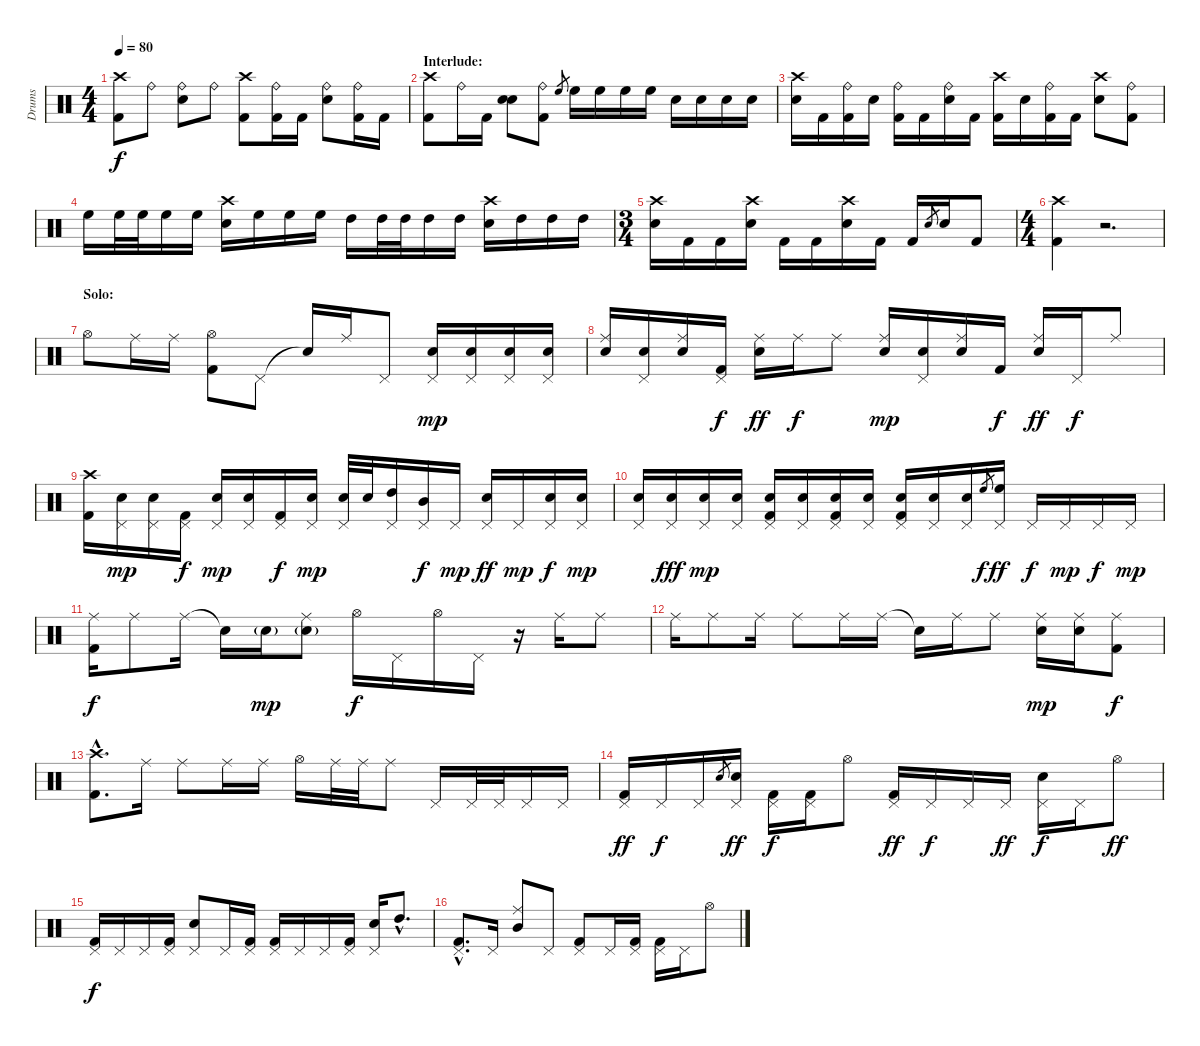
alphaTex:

\track ("Drums" "Drums") {instrument percussion}
\staff {score}
\articulation defaults
\ts (4 4)
\tempo 80
\clef neutral
\ks c
("Crash high (hit)" "Kick (hit) 2").8{dy f} "Ride (bell)".8 ("Ride (bell)" "Electric Snare (hit)").8 "Ride (bell)".8 ("Crash high (hit)" "Kick (hit) 2").8 ("Ride (bell)" "Kick (hit) 2").16 "Kick (hit) 2".16 ("Ride (bell)" "Electric Snare (hit)").8 ("Ride (bell)" "Kick (hit) 2").16 "Kick (hit) 2".16 |
\section ("" "Interlude:")
("Crash high (hit)" "Kick (hit) 2").8 "Ride (bell)".16 "Kick (hit) 2".16 ("Electric Snare (hit)" "Electric Snare (hit)").8 ("Ride (bell)" "Kick (hit) 2").8 "High Floor Tom (hit)".8{gr} "High Floor Tom (hit)".16 "High Floor Tom (hit)".16 "High Floor Tom (hit)".16 "High Floor Tom (hit)".16 "Electric Snare (hit)".16 "Electric Snare (hit)".16 "Electric Snare (hit)".16 "Electric Snare (hit)".16 |
("Crash high (hit)" "Electric Snare (hit)").16 "Kick (hit) 2".16 ("Ride (bell)" "Kick (hit) 2").16 "Electric Snare (hit)".16 ("Ride (bell)" "Kick (hit) 2").16 "Kick (hit) 2".16 ("Ride (bell)" "Electric Snare (hit)").16 "Kick (hit) 2".16 ("Crash high (hit)" "Kick (hit) 2").16 "Electric Snare (hit)".16 ("Ride (bell)" "Kick (hit) 2").16 "Kick (hit) 2".16 ("Crash high (hit)" "Electric Snare (hit)").8 ("Ride (bell)" "Kick (hit) 2").8 |
"High Floor Tom (hit)".16 "High Floor Tom (hit)".32 "High Floor Tom (hit)".32 "High Floor Tom (hit)".16 "High Floor Tom (hit)".16 ("Crash high (hit)" "Electric Snare (hit)").16 "High Floor Tom (hit)".16 "High Floor Tom (hit)".16 "High Floor Tom (hit)".16 "High Tom (hit)".16 "High Tom (hit)".32 "High Tom (hit)".32 "High Tom (hit)".16 "High Tom (hit)".16 ("Crash high (hit)" "Electric Snare (hit)").16 "High Tom (hit)".16 "High Tom (hit)".16 "High Tom (hit)".16 |
\ts (3 4)
("Crash high (hit)" "Electric Snare (hit)").16 "Kick (hit) 2".16 "Kick (hit) 2".16 ("Crash high (hit)" "Electric Snare (hit)").16 "Kick (hit) 2".16 "Kick (hit) 2".16 ("Crash high (hit)" "Electric Snare (hit)").16 "Kick (hit) 2".16 "Kick (hit) 2".16 "Electric Snare (hit)".8{gr} "Electric Snare (hit)".16 "Kick (hit) 2".8 |
\ts (4 4)
("Crash high (hit)" "Kick (hit) 2").4 r.2{d} |
\section ("" "Solo:")
"Hi-Hat (open)".8{volume 6} "Ride (middle)".16 "Ride (middle)".16 ("Hi-Hat (open)" "Kick (hit) 2").8 "Pedal Hi-Hat (hit)".8 "Snare (hit)"{t}.16 "Ride (middle)".16 "Pedal Hi-Hat (hit)".8 ("Pedal Hi-Hat (hit)" "Electric Snare (hit)").16{dy mp} ("Pedal Hi-Hat (hit)" "Electric Snare (hit)").16 ("Pedal Hi-Hat (hit)" "Electric Snare (hit)").16 ("Pedal Hi-Hat (hit)" "Electric Snare (hit)").16 |
("Ride (middle)" "Electric Snare (hit)").16 ("Pedal Hi-Hat (hit)" "Electric Snare (hit)").16 ("Ride (middle)" "Electric Snare (hit)").16 ("Pedal Hi-Hat (hit)" "Kick (hit) 2").16{dy f} ("Ride (middle)" "Electric Snare (hit)").16{dy ff} "Ride (middle)".16{dy f} "Ride (middle)".8 ("Ride (middle)" "Electric Snare (hit)").16{dy mp} ("Pedal Hi-Hat (hit)" "Electric Snare (hit)").16 ("Ride (middle)" "Electric Snare (hit)").16 "Kick (hit) 2".16{dy f} ("Ride (middle)" "Electric Snare (hit)").16{dy ff} "Pedal Hi-Hat (hit)".16{dy f} "Ride (middle)".8 |
("Crash high (hit)" "Kick (hit) 2").16 ("Pedal Hi-Hat (hit)" "Electric Snare (hit)").16{dy mp} ("Pedal Hi-Hat (hit)" "Electric Snare (hit)").16 ("Pedal Hi-Hat (hit)" "Kick (hit) 2").16{dy f} ("Pedal Hi-Hat (hit)" "Electric Snare (hit)").16{dy mp} ("Pedal Hi-Hat (hit)" "Electric Snare (hit)").16 ("Pedal Hi-Hat (hit)" "Kick (hit) 2").16{dy f} ("Pedal Hi-Hat (hit)" "Electric Snare (hit)").16{dy mp} ("Pedal Hi-Hat (hit)" "Electric Snare (hit)").32 "Electric Snare (hit)".32 ("Pedal Hi-Hat (hit)" "High Tom (hit)").16 ("Pedal Hi-Hat (hit)" "Mid Tom (hit)").16{dy f} "Pedal Hi-Hat (hit)".16{dy mp} ("Pedal Hi-Hat (hit)" "Electric Snare (hit)").16{dy ff} "Pedal Hi-Hat (hit)".16{dy mp} ("Pedal Hi-Hat (hit)" "Electric Snare (hit)").16{dy f} ("Pedal Hi-Hat (hit)" "Electric Snare (hit)").16{dy mp} |
("Pedal Hi-Hat (hit)" "Electric Snare (hit)").16 ("Pedal Hi-Hat (hit)" "Electric Snare (hit)").16{dy fff} ("Pedal Hi-Hat (hit)" "Electric Snare (hit)").16{dy mp} ("Pedal Hi-Hat (hit)" "Electric Snare (hit)").16 ("Pedal Hi-Hat (hit)" "Electric Snare (hit)" "Kick (hit) 2").16 ("Pedal Hi-Hat (hit)" "Electric Snare (hit)").16 ("Pedal Hi-Hat (hit)" "Electric Snare (hit)" "Kick (hit) 2").16 ("Pedal Hi-Hat (hit)" "Electric Snare (hit)").16 ("Pedal Hi-Hat (hit)" "Electric Snare (hit)" "Kick (hit) 2").16 ("Pedal Hi-Hat (hit)" "Electric Snare (hit)").16 ("Pedal Hi-Hat (hit)" "Electric Snare (hit)").16 "High Floor Tom (hit)".8{gr dy f} ("Pedal Hi-Hat (hit)" "High Floor Tom (hit)").16{dy ff} "Pedal Hi-Hat (hit)".16{dy f} "Pedal Hi-Hat (hit)".16{dy mp} "Pedal Hi-Hat (hit)".16{dy f} "Pedal Hi-Hat (hit)".16{dy mp} |
("Ride (middle)" "Kick (hit) 2").16{dy f} "Ride (middle)".8 "Ride (middle)".16 "Snare (hit)"{t}.16 "Electric Snare (hit)"{g}.16{dy mp} ("Ride (middle)" "Electric Snare (hit)"{g}).8 "Hi-Hat (open)".16{dy f} "Pedal Hi-Hat (hit)".16 "Hi-Hat (open)".16 "Pedal Hi-Hat (hit)".16 r.16 "Ride (middle)".16 "Ride (middle)".8 |
"Ride (middle)".16 "Ride (middle)".8 "Ride (middle)".16 "Ride (middle)".8 "Ride (middle)".16 "Ride (middle)".16 "Snare (hit)"{t}.16 "Ride (middle)".16 "Ride (middle)".8 ("Ride (middle)" "Electric Snare (hit)").16{dy mp} ("Ride (middle)" "Electric Snare (hit)").16 ("Ride (middle)" "Kick (hit) 2").8{dy f} |
("Crash high (hit)"{hac} "Kick (hit) 2"{hac}).8{d} "Ride (middle)".16 "Ride (middle)".8 "Ride (middle)".16 "Ride (middle)".16 "Hi-Hat (open)".16 "Ride (middle)".32 "Ride (middle)".32 "Ride (middle)".8 "Pedal Hi-Hat (hit)".16 "Pedal Hi-Hat (hit)".32 "Pedal Hi-Hat (hit)".32 "Pedal Hi-Hat (hit)".16 "Pedal Hi-Hat (hit)".16 |
("Pedal Hi-Hat (hit)" "Kick (hit) 2").16{dy ff} "Pedal Hi-Hat (hit)".16{dy f} "Pedal Hi-Hat (hit)".16 "Electric Snare (hit)".8{gr} ("Pedal Hi-Hat (hit)" "Electric Snare (hit)").16{dy ff} ("Pedal Hi-Hat (hit)" "Kick (hit) 2").16{dy f} ("Pedal Hi-Hat (hit)" "Kick (hit) 2").16 "Hi-Hat (open)".8 ("Pedal Hi-Hat (hit)" "Kick (hit) 2").16{dy ff} "Pedal Hi-Hat (hit)".16{dy f} "Pedal Hi-Hat (hit)".16 "Pedal Hi-Hat (hit)".16{dy ff} ("Pedal Hi-Hat (hit)" "Electric Snare (hit)").16{dy f} "Pedal Hi-Hat (hit)".16 "Hi-Hat (open)".8{dy ff} |
("Pedal Hi-Hat (hit)" "Kick (hit) 2").16{dy f} "Pedal Hi-Hat (hit)".16 "Pedal Hi-Hat (hit)".16 ("Pedal Hi-Hat (hit)" "Kick (hit) 2").16 ("Pedal Hi-Hat (hit)" "Electric Snare (hit)").8 "Pedal Hi-Hat (hit)".16 ("Pedal Hi-Hat (hit)" "Kick (hit) 2").16 ("Pedal Hi-Hat (hit)" "Kick (hit) 2").16 "Pedal Hi-Hat (hit)".16 "Pedal Hi-Hat (hit)".16 ("Pedal Hi-Hat (hit)" "Kick (hit) 2").16 ("Pedal Hi-Hat (hit)" "Electric Snare (hit)").16 "High Tom (hit)"{hac}.8{d} |
("Pedal Hi-Hat (hit)"{hac} "Kick (hit) 2"{hac}).8{d} "Pedal Hi-Hat (hit)".16 ("Ride (middle)" "Mid Tom (hit)").8 "Pedal Hi-Hat (hit)".8 ("Pedal Hi-Hat (hit)" "Kick (hit) 2").8 "Pedal Hi-Hat (hit)".16 ("Pedal Hi-Hat (hit)" "Kick (hit) 2").16 ("Pedal Hi-Hat (hit)" "Kick (hit) 2").16 "Pedal Hi-Hat (hit)".16 "Hi-Hat (open)".8
